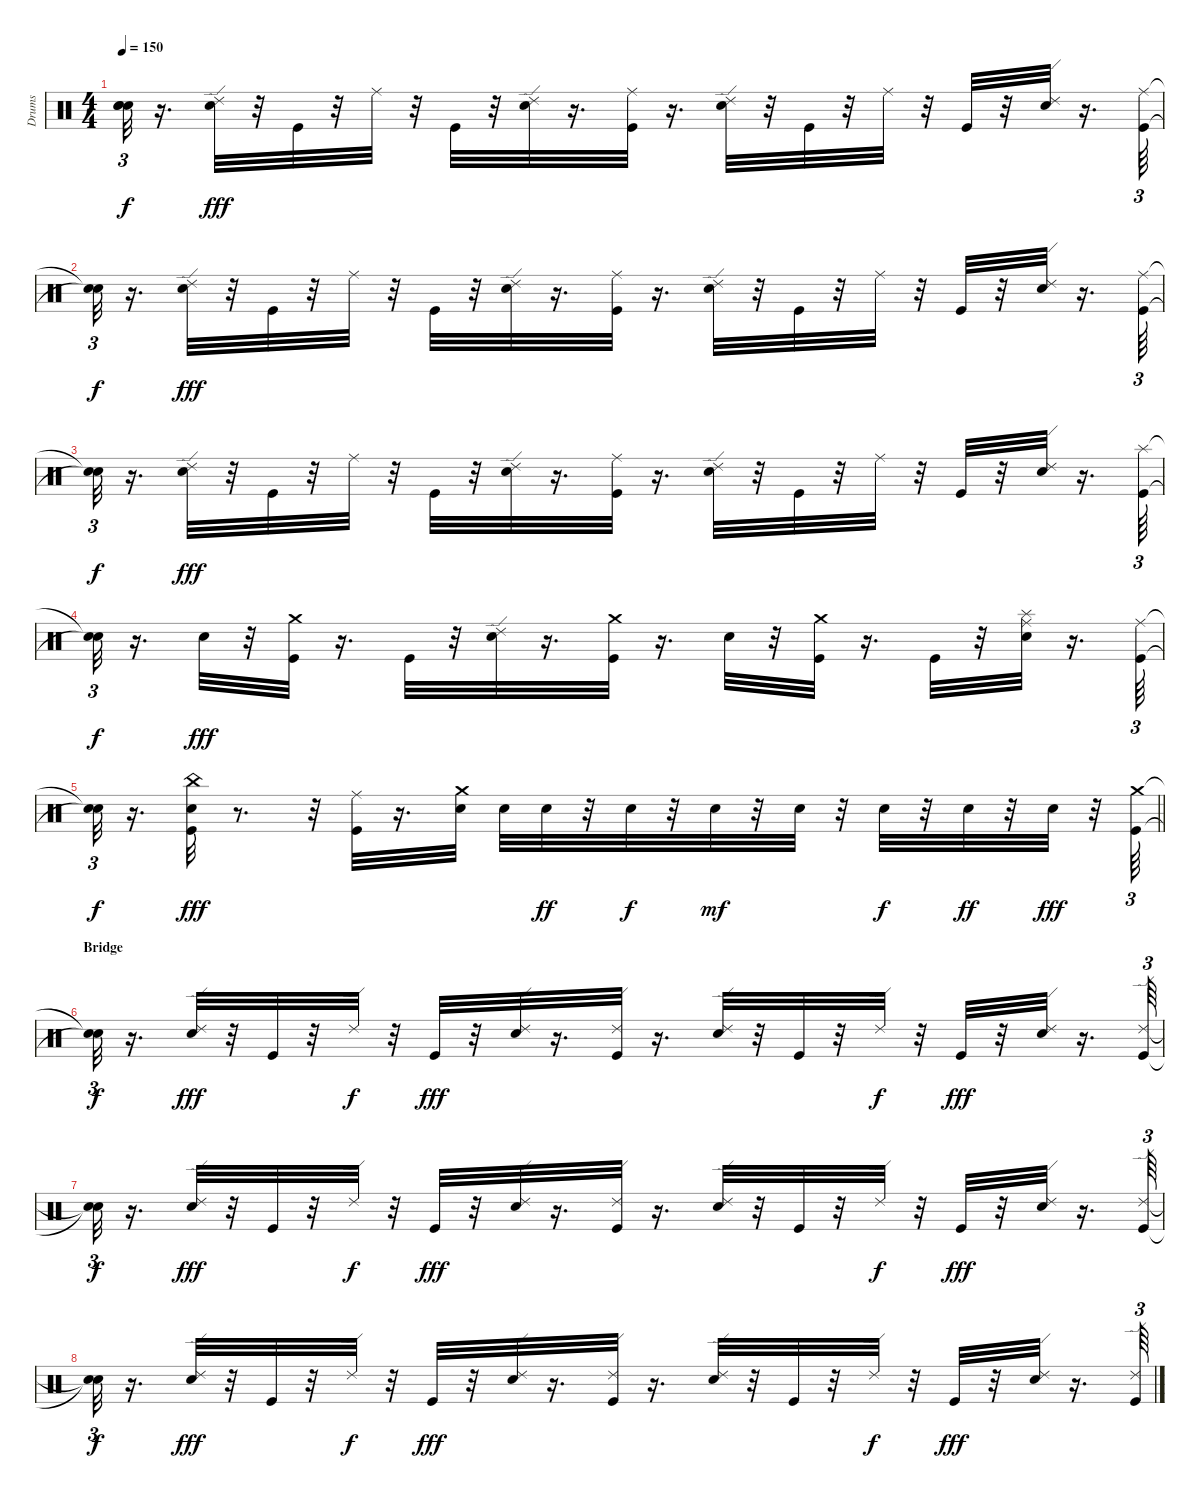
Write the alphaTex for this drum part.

\track ("Drums" "Drums") {instrument percussion}
\staff {score}
\articulation defaults
\ts (4 4)
\tempo 150
\clef neutral
\ks c
("Snare (hit)"{t} "Snare (hit)"{t} "Snare (hit)"{t}).32{tu (3 2) dy f} r.16{d} ("Electric Snare (hit)" "Ride (edge) 2").32{dy fff} r.32 "Kick (hit)".32 r.32 "Ride (middle)".32 r.32 "Kick (hit)".32 r.32 ("Electric Snare (hit)" "Ride (edge) 2").32 r.16{d} ("Kick (hit)" "Ride (middle)").32 r.16{d} ("Electric Snare (hit)" "Ride (edge) 2").32 r.32 "Kick (hit)".32 r.32 "Ride (middle)".32 r.32 "Kick (hit)".32 r.32 ("Electric Snare (hit)" "Ride (edge) 2").32 r.16{d} ("Ride (middle)" "Kick (hit)").64{tu (3 2)} |
("Snare (hit)"{t} "Snare (hit)"{t}).32{tu (3 2) dy f} r.16{d} ("Electric Snare (hit)" "Ride (edge) 2").32{dy fff} r.32 "Kick (hit)".32 r.32 "Ride (middle)".32 r.32 "Kick (hit)".32 r.32 ("Electric Snare (hit)" "Ride (edge) 2").32 r.16{d} ("Kick (hit)" "Ride (middle)").32 r.16{d} ("Electric Snare (hit)" "Ride (edge) 2").32 r.32 "Kick (hit)".32 r.32 "Ride (middle)".32 r.32 "Kick (hit)".32 r.32 ("Electric Snare (hit)" "Ride (edge) 2").32 r.16{d} ("Kick (hit)" "Ride (middle)").64{tu (3 2)} |
("Snare (hit)"{t} "Snare (hit)"{t}).32{tu (3 2) dy f} r.16{d} ("Electric Snare (hit)" "Ride (edge) 2").32{dy fff} r.32 "Kick (hit)".32 r.32 "Ride (middle)".32 r.32 "Kick (hit)".32 r.32 ("Electric Snare (hit)" "Ride (edge) 2").32 r.16{d} ("Kick (hit)" "Ride (middle)").32 r.16{d} ("Electric Snare (hit)" "Ride (edge) 2").32 r.32 "Kick (hit)".32 r.32 "Ride (middle)".32 r.32 "Kick (hit)".32 r.32 ("Electric Snare (hit)" "Ride (edge) 2").32 r.16{d} ("Splash (hit)" "Kick (hit)").64{tu (3 2)} |
("Snare (hit)"{t} "Snare (hit)"{t}).32{tu (3 2) dy f} r.16{d} "Electric Snare (hit)".32{dy fff} r.32 ("Crash medium (hit)" "Kick (hit)").32 r.16{d} "Kick (hit)".32 r.32 ("Electric Snare (hit)" "Ride (edge) 2").32 r.16{d} ("Crash medium (hit)" "Kick (hit)").32 r.16{d} "Electric Snare (hit)".32 r.32 ("Crash medium (hit)" "Kick (hit)").32 r.16{d} "Kick (hit)".32 r.32 ("Splash (hit)" "Electric Snare (hit)" "Ride (middle)").32 r.16{d} ("Kick (hit)" "Ride (middle)").64{tu (3 2)} |
\barLineRight lightlight
("Snare (hit)"{t} "Snare (hit)"{t}).32{tu (3 2) dy f} r.16{d} ("Electric Snare (hit)" "China (hit)" "Kick (hit)").32{dy fff} r.8{d} r.32 ("Kick (hit)" "Ride (middle)").32 r.16{d} ("Electric Snare (hit)" "Crash medium (hit)").32 "Electric Snare (hit)".32 "Electric Snare (hit)".32{dy ff} r.32 "Electric Snare (hit)".32{dy f} r.32 "Electric Snare (hit)".32{dy mf} r.32 "Electric Snare (hit)".32 r.32 "Electric Snare (hit)".32{dy f} r.32 "Electric Snare (hit)".32{dy ff} r.32 "Electric Snare (hit)".32{dy fff} r.32 ("Crash medium (hit)" "Kick (hit)").64{tu (3 2)} |
\section ("" "Bridge")
("Snare (hit)"{t} "Snare (hit)"{t}).32{tu (3 2) dy f} r.16{d} ("Ride (edge) 2" "Electric Snare (hit)").32{dy fff} r.32 "Kick (hit)".32 r.32 "Ride (edge) 2".32{dy f} r.32 "Kick (hit)".32{dy fff} r.32 ("Ride (edge) 2" "Electric Snare (hit)").32 r.16{d} ("Ride (edge) 2" "Kick (hit)").32 r.16{d} ("Ride (edge) 2" "Electric Snare (hit)").32 r.32 "Kick (hit)".32 r.32 "Ride (edge) 2".32{dy f} r.32 "Kick (hit)".32{dy fff} r.32 ("Ride (edge) 2" "Electric Snare (hit)").32 r.16{d} ("Ride (edge) 2" "Kick (hit)").64{tu (3 2)} |
("Snare (hit)"{t} "Snare (hit)"{t}).32{tu (3 2) dy f} r.16{d} ("Ride (edge) 2" "Electric Snare (hit)").32{dy fff} r.32 "Kick (hit)".32 r.32 "Ride (edge) 2".32{dy f} r.32 "Kick (hit)".32{dy fff} r.32 ("Ride (edge) 2" "Electric Snare (hit)").32 r.16{d} ("Ride (edge) 2" "Kick (hit)").32 r.16{d} ("Ride (edge) 2" "Electric Snare (hit)").32 r.32 "Kick (hit)".32 r.32 "Ride (edge) 2".32{dy f} r.32 "Kick (hit)".32{dy fff} r.32 ("Ride (edge) 2" "Electric Snare (hit)").32 r.16{d} ("Ride (edge) 2" "Kick (hit)").64{tu (3 2)} |
("Snare (hit)"{t} "Snare (hit)"{t}).32{tu (3 2) dy f} r.16{d} ("Ride (edge) 2" "Electric Snare (hit)").32{dy fff} r.32 "Kick (hit)".32 r.32 "Ride (edge) 2".32{dy f} r.32 "Kick (hit)".32{dy fff} r.32 ("Ride (edge) 2" "Electric Snare (hit)").32 r.16{d} ("Ride (edge) 2" "Kick (hit)").32 r.16{d} ("Ride (edge) 2" "Electric Snare (hit)").32 r.32 "Kick (hit)".32 r.32 "Ride (edge) 2".32{dy f} r.32 "Kick (hit)".32{dy fff} r.32 ("Ride (edge) 2" "Electric Snare (hit)").32 r.16{d} ("Ride (edge) 2" "Kick (hit)").64{tu (3 2)}
